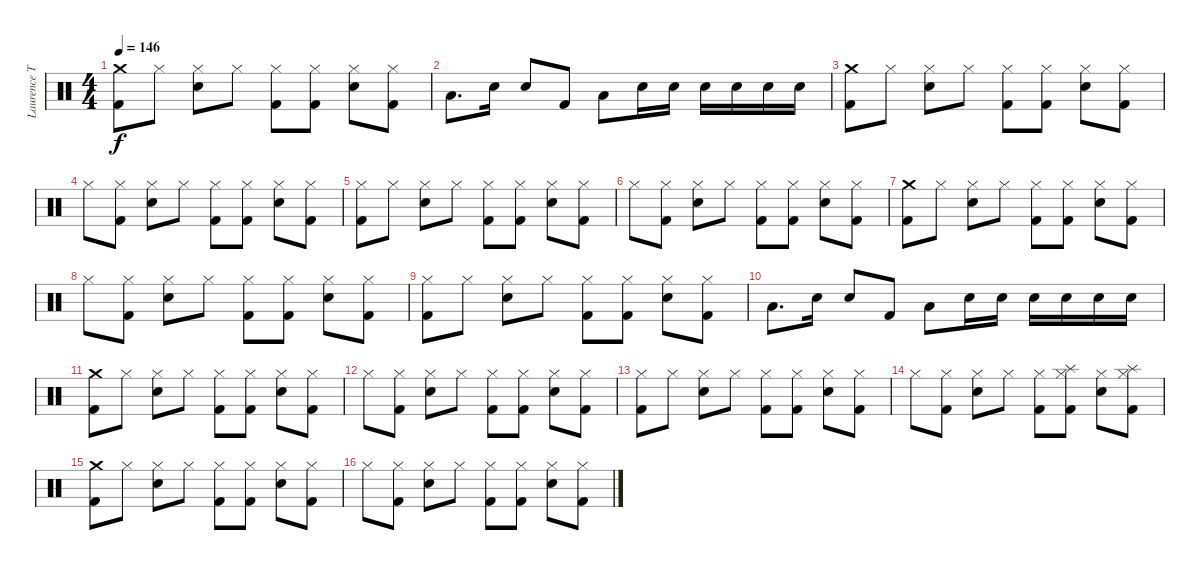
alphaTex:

\track ("Laurence Tolhurst drums" "Laurence T") {instrument percussion}
\staff {score}
\articulation defaults
\ts (4 4)
\tempo 146
\clef neutral
\ks c
("Crash medium (hit)" "Kick (hit) 2").8{dy f} "Hi-Hat (closed)".8 ("Hi-Hat (closed)" "Snare (hit) 2").8 "Hi-Hat (closed)".8 ("Hi-Hat (closed)" "Kick (hit) 2").8 ("Hi-Hat (closed)" "Kick (hit) 2").8 ("Hi-Hat (closed)" "Snare (hit) 2").8 ("Hi-Hat (closed)" "Kick (hit) 2").8 |
"Low Tom (hit)".8{d} "Snare (hit) 2".16 "Snare (hit) 2".8 "Kick (hit) 2".8 "Low Tom (hit)".8 "Snare (hit) 2".16 "Snare (hit) 2".16 "Snare (hit) 2".16 "Snare (hit) 2".16 "Snare (hit) 2".16 "Snare (hit) 2".16 |
("Crash medium (hit)" "Kick (hit) 2").8 "Hi-Hat (closed)".8 ("Hi-Hat (closed)" "Snare (hit) 2").8 "Hi-Hat (closed)".8 ("Hi-Hat (closed)" "Kick (hit) 2").8 ("Hi-Hat (closed)" "Kick (hit) 2").8 ("Hi-Hat (closed)" "Snare (hit) 2").8 ("Hi-Hat (closed)" "Kick (hit) 2").8 |
"Hi-Hat (closed)".8 ("Hi-Hat (closed)" "Kick (hit) 2").8 ("Hi-Hat (closed)" "Snare (hit) 2").8 "Hi-Hat (closed)".8 ("Hi-Hat (closed)" "Kick (hit) 2").8 ("Hi-Hat (closed)" "Kick (hit) 2").8 ("Hi-Hat (closed)" "Snare (hit) 2").8 ("Hi-Hat (closed)" "Kick (hit) 2").8 |
("Hi-Hat (closed)" "Kick (hit) 2").8 "Hi-Hat (closed)".8 ("Hi-Hat (closed)" "Snare (hit) 2").8 "Hi-Hat (closed)".8 ("Hi-Hat (closed)" "Kick (hit) 2").8 ("Hi-Hat (closed)" "Kick (hit) 2").8 ("Hi-Hat (closed)" "Snare (hit) 2").8 ("Hi-Hat (closed)" "Kick (hit) 2").8 |
"Hi-Hat (closed)".8 ("Hi-Hat (closed)" "Kick (hit) 2").8 ("Hi-Hat (closed)" "Snare (hit) 2").8 "Hi-Hat (closed)".8 ("Hi-Hat (closed)" "Kick (hit) 2").8 ("Hi-Hat (closed)" "Kick (hit) 2").8 ("Hi-Hat (closed)" "Snare (hit) 2").8 ("Hi-Hat (closed)" "Kick (hit) 2").8 |
("Crash medium (hit)" "Kick (hit) 2").8 "Hi-Hat (closed)".8 ("Hi-Hat (closed)" "Snare (hit) 2").8 "Hi-Hat (closed)".8 ("Hi-Hat (closed)" "Kick (hit) 2").8 ("Hi-Hat (closed)" "Kick (hit) 2").8 ("Hi-Hat (closed)" "Snare (hit) 2").8 ("Hi-Hat (closed)" "Kick (hit) 2").8 |
"Hi-Hat (closed)".8 ("Hi-Hat (closed)" "Kick (hit) 2").8 ("Hi-Hat (closed)" "Snare (hit) 2").8 "Hi-Hat (closed)".8 ("Hi-Hat (closed)" "Kick (hit) 2").8 ("Hi-Hat (closed)" "Kick (hit) 2").8 ("Hi-Hat (closed)" "Snare (hit) 2").8 ("Hi-Hat (closed)" "Kick (hit) 2").8 |
("Hi-Hat (closed)" "Kick (hit) 2").8 "Hi-Hat (closed)".8 ("Hi-Hat (closed)" "Snare (hit) 2").8 "Hi-Hat (closed)".8 ("Hi-Hat (closed)" "Kick (hit) 2").8 ("Hi-Hat (closed)" "Kick (hit) 2").8 ("Hi-Hat (closed)" "Snare (hit) 2").8 ("Hi-Hat (closed)" "Kick (hit) 2").8 |
"Low Tom (hit)".8{d} "Snare (hit) 2".16 "Snare (hit) 2".8 "Kick (hit) 2".8 "Low Tom (hit)".8 "Snare (hit) 2".16 "Snare (hit) 2".16 "Snare (hit) 2".16 "Snare (hit) 2".16 "Snare (hit) 2".16 "Snare (hit) 2".16 |
("Crash medium (hit)" "Kick (hit) 2").8 "Hi-Hat (closed)".8 ("Hi-Hat (closed)" "Snare (hit) 2").8 "Hi-Hat (closed)".8 ("Hi-Hat (closed)" "Kick (hit) 2").8 ("Hi-Hat (closed)" "Kick (hit) 2").8 ("Hi-Hat (closed)" "Snare (hit) 2").8 ("Hi-Hat (closed)" "Kick (hit) 2").8 |
"Hi-Hat (closed)".8 ("Hi-Hat (closed)" "Kick (hit) 2").8 ("Hi-Hat (closed)" "Snare (hit) 2").8 "Hi-Hat (closed)".8 ("Hi-Hat (closed)" "Kick (hit) 2").8 ("Hi-Hat (closed)" "Kick (hit) 2").8 ("Hi-Hat (closed)" "Snare (hit) 2").8 ("Hi-Hat (closed)" "Kick (hit) 2").8 |
("Hi-Hat (closed)" "Kick (hit) 2").8 "Hi-Hat (closed)".8 ("Hi-Hat (closed)" "Snare (hit) 2").8 "Hi-Hat (closed)".8 ("Hi-Hat (closed)" "Kick (hit) 2").8 ("Hi-Hat (closed)" "Kick (hit) 2").8 ("Hi-Hat (closed)" "Snare (hit) 2").8 ("Hi-Hat (closed)" "Kick (hit) 2").8 |
"Hi-Hat (closed)".8 ("Hi-Hat (closed)" "Kick (hit) 2").8 ("Hi-Hat (closed)" "Snare (hit) 2").8 "Hi-Hat (closed)".8 ("Hi-Hat (closed)" "Kick (hit) 2").8 ("Hi-Hat (closed)" "Kick (hit) 2" "Splash (hit)").8 ("Hi-Hat (closed)" "Snare (hit) 2").8 ("Hi-Hat (closed)" "Kick (hit) 2" "Splash (hit)").8 |
("Crash medium (hit)" "Kick (hit) 2").8 "Hi-Hat (closed)".8 ("Hi-Hat (closed)" "Snare (hit) 2").8 "Hi-Hat (closed)".8 ("Hi-Hat (closed)" "Kick (hit) 2").8 ("Hi-Hat (closed)" "Kick (hit) 2").8 ("Hi-Hat (closed)" "Snare (hit) 2").8 ("Hi-Hat (closed)" "Kick (hit) 2").8 |
"Hi-Hat (closed)".8 ("Hi-Hat (closed)" "Kick (hit) 2").8 ("Hi-Hat (closed)" "Snare (hit) 2").8 "Hi-Hat (closed)".8 ("Hi-Hat (closed)" "Kick (hit) 2").8 ("Hi-Hat (closed)" "Kick (hit) 2").8 ("Hi-Hat (closed)" "Snare (hit) 2").8 ("Hi-Hat (closed)" "Kick (hit) 2").8
